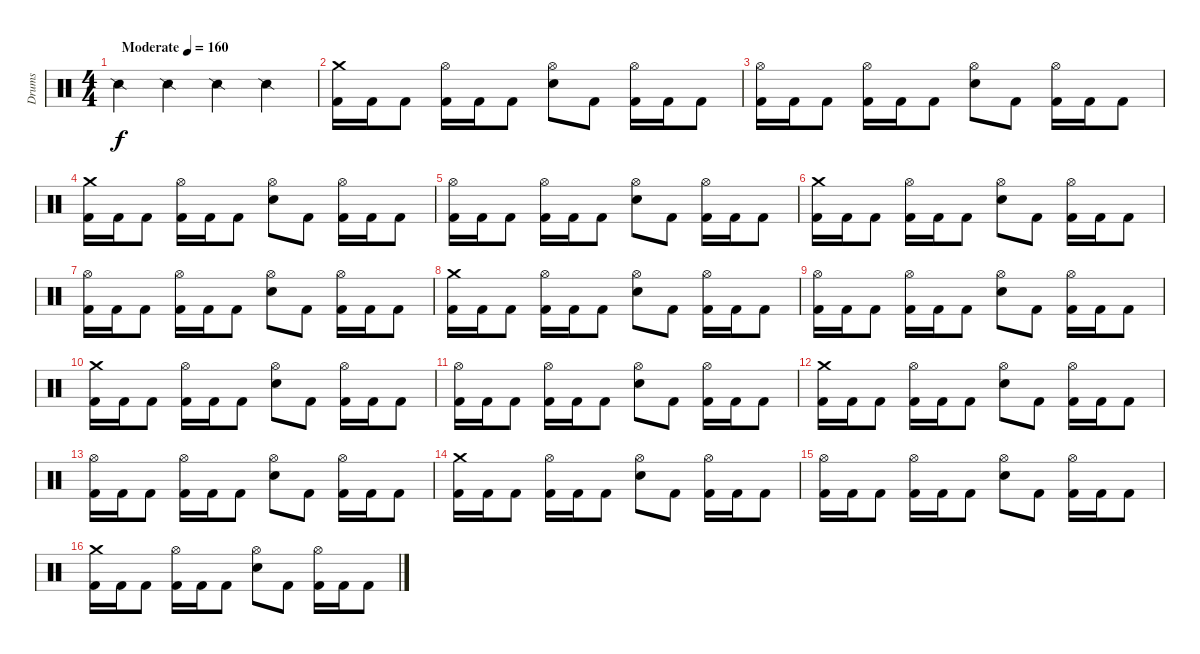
\track ("Drums" "Drums") {instrument percussion}
\staff {score}
\articulation defaults
\ts (4 4)
\tempo (160 "Moderate")
\clef neutral
\ks c "Snare (side stick) 2".4{dy f} "Snare (side stick) 2".4 "Snare (side stick) 2".4 "Snare (side stick) 2".4
|
("Crash medium (hit)" "Kick (hit) 2").16 "Kick (hit) 2".16 "Kick (hit) 2".8 ("Hi-Hat (open)" "Kick (hit) 2").16 "Kick (hit) 2".16 "Kick (hit) 2".8 ("Hi-Hat (open)" "Snare (hit) 2").8 "Kick (hit) 2".8 ("Hi-Hat (open)" "Kick (hit) 2").16 "Kick (hit) 2".16 "Kick (hit) 2".8 |
("Hi-Hat (open)" "Kick (hit) 2").16 "Kick (hit) 2".16 "Kick (hit) 2".8 ("Hi-Hat (open)" "Kick (hit) 2").16 "Kick (hit) 2".16 "Kick (hit) 2".8 ("Hi-Hat (open)" "Snare (hit) 2").8 "Kick (hit) 2".8 ("Hi-Hat (open)" "Kick (hit) 2").16 "Kick (hit) 2".16 "Kick (hit) 2".8 |
("Crash medium (hit)" "Kick (hit) 2").16 "Kick (hit) 2".16 "Kick (hit) 2".8 ("Hi-Hat (open)" "Kick (hit) 2").16 "Kick (hit) 2".16 "Kick (hit) 2".8 ("Hi-Hat (open)" "Snare (hit) 2").8 "Kick (hit) 2".8 ("Hi-Hat (open)" "Kick (hit) 2").16 "Kick (hit) 2".16 "Kick (hit) 2".8 |
("Hi-Hat (open)" "Kick (hit) 2").16 "Kick (hit) 2".16 "Kick (hit) 2".8 ("Hi-Hat (open)" "Kick (hit) 2").16 "Kick (hit) 2".16 "Kick (hit) 2".8 ("Hi-Hat (open)" "Snare (hit) 2").8 "Kick (hit) 2".8 ("Hi-Hat (open)" "Kick (hit) 2").16 "Kick (hit) 2".16 "Kick (hit) 2".8 |
("Crash medium (hit)" "Kick (hit) 2").16 "Kick (hit) 2".16 "Kick (hit) 2".8 ("Hi-Hat (open)" "Kick (hit) 2").16 "Kick (hit) 2".16 "Kick (hit) 2".8 ("Hi-Hat (open)" "Snare (hit) 2").8 "Kick (hit) 2".8 ("Hi-Hat (open)" "Kick (hit) 2").16 "Kick (hit) 2".16 "Kick (hit) 2".8 |
("Hi-Hat (open)" "Kick (hit) 2").16 "Kick (hit) 2".16 "Kick (hit) 2".8 ("Hi-Hat (open)" "Kick (hit) 2").16 "Kick (hit) 2".16 "Kick (hit) 2".8 ("Hi-Hat (open)" "Snare (hit) 2").8 "Kick (hit) 2".8 ("Hi-Hat (open)" "Kick (hit) 2").16 "Kick (hit) 2".16 "Kick (hit) 2".8 |
("Crash medium (hit)" "Kick (hit) 2").16 "Kick (hit) 2".16 "Kick (hit) 2".8 ("Hi-Hat (open)" "Kick (hit) 2").16 "Kick (hit) 2".16 "Kick (hit) 2".8 ("Hi-Hat (open)" "Snare (hit) 2").8 "Kick (hit) 2".8 ("Hi-Hat (open)" "Kick (hit) 2").16 "Kick (hit) 2".16 "Kick (hit) 2".8 |
("Hi-Hat (open)" "Kick (hit) 2").16 "Kick (hit) 2".16 "Kick (hit) 2".8 ("Hi-Hat (open)" "Kick (hit) 2").16 "Kick (hit) 2".16 "Kick (hit) 2".8 ("Hi-Hat (open)" "Snare (hit) 2").8 "Kick (hit) 2".8 ("Hi-Hat (open)" "Kick (hit) 2").16 "Kick (hit) 2".16 "Kick (hit) 2".8 |
("Crash medium (hit)" "Kick (hit) 2").16 "Kick (hit) 2".16 "Kick (hit) 2".8 ("Hi-Hat (open)" "Kick (hit) 2").16 "Kick (hit) 2".16 "Kick (hit) 2".8 ("Hi-Hat (open)" "Snare (hit) 2").8 "Kick (hit) 2".8 ("Hi-Hat (open)" "Kick (hit) 2").16 "Kick (hit) 2".16 "Kick (hit) 2".8 |
("Hi-Hat (open)" "Kick (hit) 2").16 "Kick (hit) 2".16 "Kick (hit) 2".8 ("Hi-Hat (open)" "Kick (hit) 2").16 "Kick (hit) 2".16 "Kick (hit) 2".8 ("Hi-Hat (open)" "Snare (hit) 2").8 "Kick (hit) 2".8 ("Hi-Hat (open)" "Kick (hit) 2").16 "Kick (hit) 2".16 "Kick (hit) 2".8 |
("Crash medium (hit)" "Kick (hit) 2").16 "Kick (hit) 2".16 "Kick (hit) 2".8 ("Hi-Hat (open)" "Kick (hit) 2").16 "Kick (hit) 2".16 "Kick (hit) 2".8 ("Hi-Hat (open)" "Snare (hit) 2").8 "Kick (hit) 2".8 ("Hi-Hat (open)" "Kick (hit) 2").16 "Kick (hit) 2".16 "Kick (hit) 2".8 |
("Hi-Hat (open)" "Kick (hit) 2").16 "Kick (hit) 2".16 "Kick (hit) 2".8 ("Hi-Hat (open)" "Kick (hit) 2").16 "Kick (hit) 2".16 "Kick (hit) 2".8 ("Hi-Hat (open)" "Snare (hit) 2").8 "Kick (hit) 2".8 ("Hi-Hat (open)" "Kick (hit) 2").16 "Kick (hit) 2".16 "Kick (hit) 2".8 |
("Crash medium (hit)" "Kick (hit) 2").16 "Kick (hit) 2".16 "Kick (hit) 2".8 ("Hi-Hat (open)" "Kick (hit) 2").16 "Kick (hit) 2".16 "Kick (hit) 2".8 ("Hi-Hat (open)" "Snare (hit) 2").8 "Kick (hit) 2".8 ("Hi-Hat (open)" "Kick (hit) 2").16 "Kick (hit) 2".16 "Kick (hit) 2".8 |
("Hi-Hat (open)" "Kick (hit) 2").16 "Kick (hit) 2".16 "Kick (hit) 2".8 ("Hi-Hat (open)" "Kick (hit) 2").16 "Kick (hit) 2".16 "Kick (hit) 2".8 ("Hi-Hat (open)" "Snare (hit) 2").8 "Kick (hit) 2".8 ("Hi-Hat (open)" "Kick (hit) 2").16 "Kick (hit) 2".16 "Kick (hit) 2".8 |
("Crash medium (hit)" "Kick (hit) 2").16 "Kick (hit) 2".16 "Kick (hit) 2".8 ("Hi-Hat (open)" "Kick (hit) 2").16 "Kick (hit) 2".16 "Kick (hit) 2".8 ("Hi-Hat (open)" "Snare (hit) 2").8 "Kick (hit) 2".8 ("Hi-Hat (open)" "Kick (hit) 2").16 "Kick (hit) 2".16 "Kick (hit) 2".8
